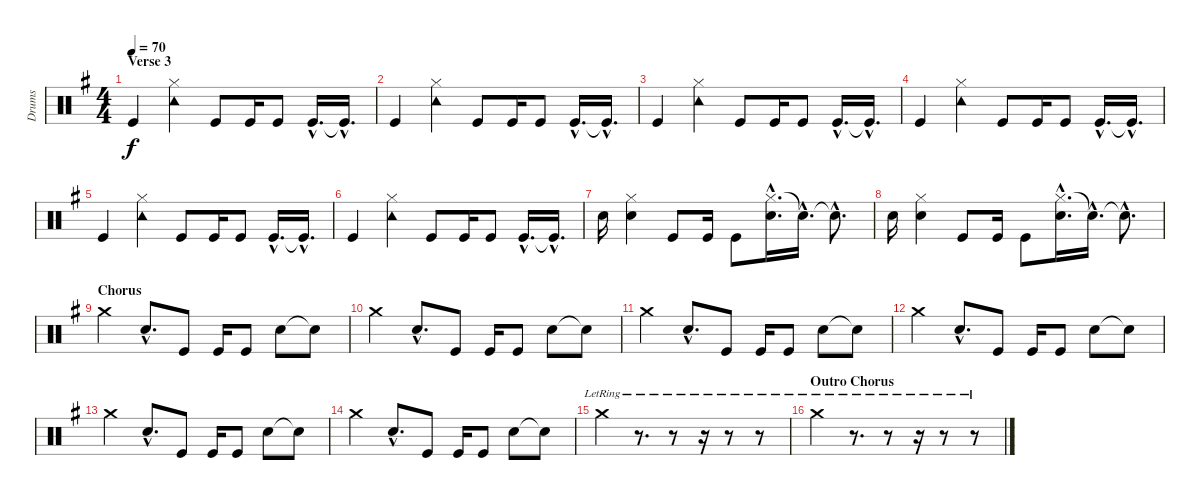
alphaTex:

\track ("Drums" "Drums") {instrument percussion}
\staff {score}
\articulation defaults
\ts (4 4)
\section ("" "Verse 3")
\tempo 70
\clef neutral
\ks g "Kick (hit)".4{dy f}
("Hi-Hat (closed)" "Tambourine (hit)").4 "Kick (hit)".8 "Kick (hit)".16 "Kick (hit)".8 "Kick (hit)"{hac}.16{d} "Kick (hit)"{hac t}.16{d} |
"Kick (hit)".4 ("Hi-Hat (closed)" "Tambourine (hit)").4 "Kick (hit)".8 "Kick (hit)".16 "Kick (hit)".8 "Kick (hit)"{hac}.16{d} "Kick (hit)"{hac t}.16{d} |
"Kick (hit)".4 ("Hi-Hat (closed)" "Tambourine (hit)").4 "Kick (hit)".8 "Kick (hit)".16 "Kick (hit)".8 "Kick (hit)"{hac}.16{d} "Kick (hit)"{hac t}.16{d} |
"Kick (hit)".4 ("Hi-Hat (closed)" "Tambourine (hit)").4 "Kick (hit)".8 "Kick (hit)".16 "Kick (hit)".8 "Kick (hit)"{hac}.16{d} "Kick (hit)"{hac t}.16{d} |
"Kick (hit)".4 ("Hi-Hat (closed)" "Tambourine (hit)").4 "Kick (hit)".8 "Kick (hit)".16 "Kick (hit)".8 "Kick (hit)"{hac}.16{d} "Kick (hit)"{hac t}.16{d} |
"Kick (hit)".4 ("Hi-Hat (closed)" "Tambourine (hit)").4 "Kick (hit)".8 "Kick (hit)".16 "Kick (hit)".8 "Kick (hit)"{hac}.16{d} "Kick (hit)"{hac t}.16{d} |
"Snare (hit) 2".16 ("Hi-Hat (closed)" "Snare (hit) 2").4 "Kick (hit)".8 "Kick (hit)".16 "Kick (hit)".8 ("Hi-Hat (closed)"{hac} "Snare (hit) 2"{hac}).16{d} "Snare (hit) 2"{hac t}.16{d} "Snare (hit) 2"{hac t}.8{d} |
"Snare (hit) 2".16 ("Hi-Hat (closed)" "Snare (hit) 2").4 "Kick (hit)".8 "Kick (hit)".16 "Kick (hit)".8 ("Hi-Hat (closed)"{hac} "Snare (hit) 2"{hac}).16{d} "Snare (hit) 2"{hac t}.16{d} "Snare (hit) 2"{hac t}.8{d} |
\section ("" "Chorus")
"Crash medium (hit)".4 "Snare (hit) 2"{hac}.8{d} "Kick (hit)".8 "Kick (hit)".16 "Kick (hit)".8 "Snare (hit) 2".8 "Snare (hit) 2"{t}.8 |
"Crash medium (hit)".4 "Snare (hit) 2"{hac}.8{d} "Kick (hit)".8 "Kick (hit)".16 "Kick (hit)".8 "Snare (hit) 2".8 "Snare (hit) 2"{t}.8 |
"Crash medium (hit)".4 "Snare (hit) 2"{hac}.8{d} "Kick (hit)".8 "Kick (hit)".16 "Kick (hit)".8 "Snare (hit) 2".8 "Snare (hit) 2"{t}.8 |
"Crash medium (hit)".4 "Snare (hit) 2"{hac}.8{d} "Kick (hit)".8 "Kick (hit)".16 "Kick (hit)".8 "Snare (hit) 2".8 "Snare (hit) 2"{t}.8 |
"Crash medium (hit)".4 "Snare (hit) 2"{hac}.8{d} "Kick (hit)".8 "Kick (hit)".16 "Kick (hit)".8 "Snare (hit) 2".8 "Snare (hit) 2"{t}.8 |
"Crash medium (hit)".4 "Snare (hit) 2"{hac}.8{d} "Kick (hit)".8 "Kick (hit)".16 "Kick (hit)".8 "Snare (hit) 2".8 "Snare (hit) 2"{t}.8 |
"Crash medium (hit)"{lr}.4 r.8{d} r.8 r.16 r.8 r.8 |
\section ("" "Outro Chorus")
"Crash medium (hit)"{lr}.4 r.8{d} r.8 r.16 r.8 r.8
